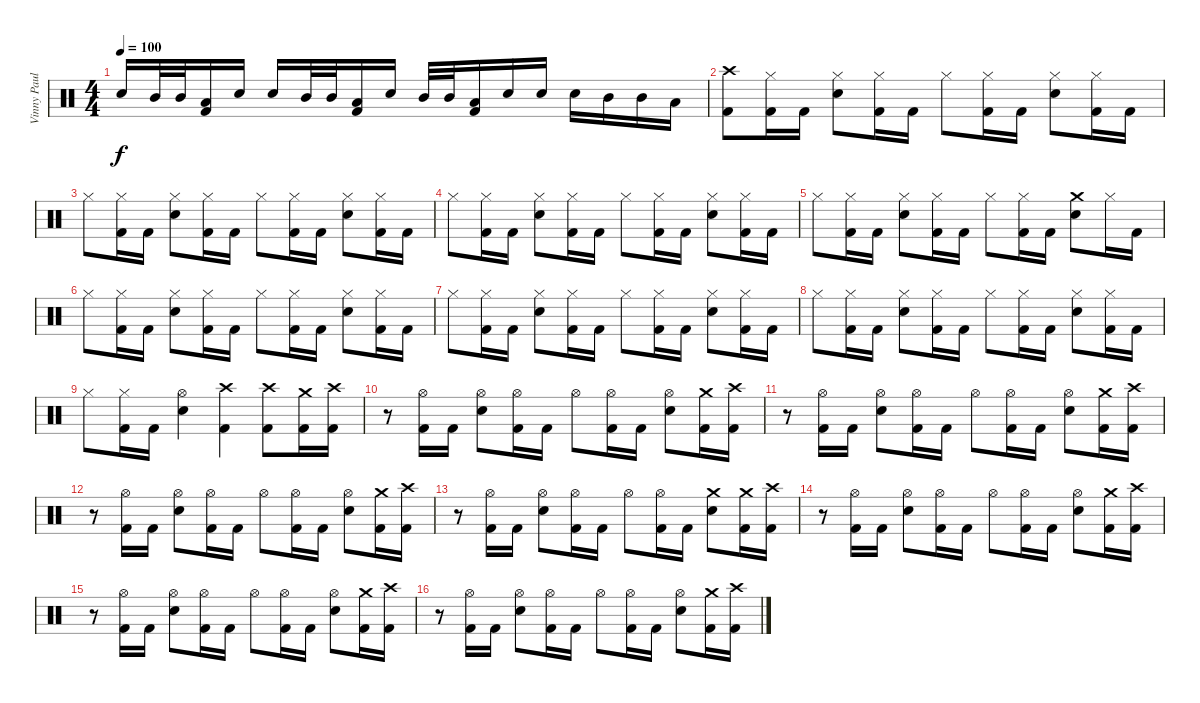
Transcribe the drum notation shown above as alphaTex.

\track ("Vinny Paul" "Vinny Paul") {instrument percussion}
\staff {score}
\articulation defaults
\ts (4 4)
\tempo 100
\clef neutral
\ks c "Snare (hit) 2".16{dy f} "Mid Tom (hit)".32 "Mid Tom (hit)".32
("Low Tom (hit)" "Kick (hit) 2").16 "Snare (hit) 2".16 "Snare (hit) 2".16 "Mid Tom (hit)".32 "Mid Tom (hit)".32 ("Low Tom (hit)" "Kick (hit) 2").16 "Snare (hit) 2".16 "Mid Tom (hit)".32 "Mid Tom (hit)".32 ("Low Tom (hit)" "Kick (hit) 2").16 "Snare (hit) 2".16 "Snare (hit) 2".16 "Snare (hit) 2".16 "Mid Tom (hit)".16 "Mid Tom (hit)".16 "Low Tom (hit)".16 |
("Crash high (hit)" "Kick (hit) 2").8 ("Hi-Hat (closed)" "Kick (hit) 2").16 "Kick (hit) 2".16 ("Hi-Hat (closed)" "Snare (hit) 2").8 ("Hi-Hat (closed)" "Kick (hit) 2").16 "Kick (hit) 2".16 "Hi-Hat (closed)".8 ("Hi-Hat (closed)" "Kick (hit) 2").16 "Kick (hit) 2".16 ("Hi-Hat (closed)" "Snare (hit) 2").8 ("Hi-Hat (closed)" "Kick (hit) 2").16 "Kick (hit) 2".16 |
"Hi-Hat (closed)".8 ("Hi-Hat (closed)" "Kick (hit) 2").16 "Kick (hit) 2".16 ("Hi-Hat (closed)" "Snare (hit) 2").8 ("Hi-Hat (closed)" "Kick (hit) 2").16 "Kick (hit) 2".16 "Hi-Hat (closed)".8 ("Hi-Hat (closed)" "Kick (hit) 2").16 "Kick (hit) 2".16 ("Hi-Hat (closed)" "Snare (hit) 2").8 ("Hi-Hat (closed)" "Kick (hit) 2").16 "Kick (hit) 2".16 |
"Hi-Hat (closed)".8 ("Hi-Hat (closed)" "Kick (hit) 2").16 "Kick (hit) 2".16 ("Hi-Hat (closed)" "Snare (hit) 2").8 ("Hi-Hat (closed)" "Kick (hit) 2").16 "Kick (hit) 2".16 "Hi-Hat (closed)".8 ("Hi-Hat (closed)" "Kick (hit) 2").16 "Kick (hit) 2".16 ("Hi-Hat (closed)" "Snare (hit) 2").8 ("Hi-Hat (closed)" "Kick (hit) 2").16 "Kick (hit) 2".16 |
"Hi-Hat (closed)".8 ("Hi-Hat (closed)" "Kick (hit) 2").16 "Kick (hit) 2".16 ("Hi-Hat (closed)" "Snare (hit) 2").8 ("Hi-Hat (closed)" "Kick (hit) 2").16 "Kick (hit) 2".16 "Hi-Hat (closed)".8 ("Hi-Hat (closed)" "Kick (hit) 2").16 "Kick (hit) 2".16 ("Crash medium (hit)" "Snare (hit) 2").8 "Hi-Hat (closed)".16 "Kick (hit) 2".16 |
"Hi-Hat (closed)".8 ("Hi-Hat (closed)" "Kick (hit) 2").16 "Kick (hit) 2".16 ("Hi-Hat (closed)" "Snare (hit) 2").8 ("Hi-Hat (closed)" "Kick (hit) 2").16 "Kick (hit) 2".16 "Hi-Hat (closed)".8 ("Hi-Hat (closed)" "Kick (hit) 2").16 "Kick (hit) 2".16 ("Hi-Hat (closed)" "Snare (hit) 2").8 ("Hi-Hat (closed)" "Kick (hit) 2").16 "Kick (hit) 2".16 |
"Hi-Hat (closed)".8 ("Hi-Hat (closed)" "Kick (hit) 2").16 "Kick (hit) 2".16 ("Hi-Hat (closed)" "Snare (hit) 2").8 ("Hi-Hat (closed)" "Kick (hit) 2").16 "Kick (hit) 2".16 "Hi-Hat (closed)".8 ("Hi-Hat (closed)" "Kick (hit) 2").16 "Kick (hit) 2".16 ("Hi-Hat (closed)" "Snare (hit) 2").8 ("Hi-Hat (closed)" "Kick (hit) 2").16 "Kick (hit) 2".16 |
"Hi-Hat (closed)".8 ("Hi-Hat (closed)" "Kick (hit) 2").16 "Kick (hit) 2".16 ("Hi-Hat (closed)" "Snare (hit) 2").8 ("Hi-Hat (closed)" "Kick (hit) 2").16 "Kick (hit) 2".16 "Hi-Hat (closed)".8 ("Hi-Hat (closed)" "Kick (hit) 2").16 "Kick (hit) 2".16 ("Hi-Hat (closed)" "Snare (hit) 2").8 ("Hi-Hat (closed)" "Kick (hit) 2").16 "Kick (hit) 2".16 |
"Hi-Hat (closed)".8 ("Hi-Hat (closed)" "Kick (hit) 2").16 "Kick (hit) 2".16 ("Hi-Hat (open)" "Snare (hit) 2").4 ("Crash high (hit)" "Kick (hit) 2").4 ("Crash high (hit)" "Kick (hit) 2").8 ("Crash medium (hit)" "Kick (hit) 2").16 ("Crash high (hit)" "Kick (hit) 2").16 |
r.8 ("Hi-Hat (open)" "Kick (hit) 2").16 "Kick (hit) 2".16 ("Hi-Hat (open)" "Snare (hit) 2").8 ("Hi-Hat (open)" "Kick (hit) 2").16 "Kick (hit) 2".16 "Hi-Hat (open)".8 ("Hi-Hat (open)" "Kick (hit) 2").16 "Kick (hit) 2".16 ("Hi-Hat (open)" "Snare (hit) 2").8 ("Crash medium (hit)" "Kick (hit) 2").16 ("Crash high (hit)" "Kick (hit) 2").16 |
r.8 ("Hi-Hat (open)" "Kick (hit) 2").16 "Kick (hit) 2".16 ("Hi-Hat (open)" "Snare (hit) 2").8 ("Hi-Hat (open)" "Kick (hit) 2").16 "Kick (hit) 2".16 "Hi-Hat (open)".8 ("Hi-Hat (open)" "Kick (hit) 2").16 "Kick (hit) 2".16 ("Hi-Hat (open)" "Snare (hit) 2").8 ("Crash medium (hit)" "Kick (hit) 2").16 ("Crash high (hit)" "Kick (hit) 2").16 |
r.8 ("Hi-Hat (open)" "Kick (hit) 2").16 "Kick (hit) 2".16 ("Hi-Hat (open)" "Snare (hit) 2").8 ("Hi-Hat (open)" "Kick (hit) 2").16 "Kick (hit) 2".16 "Hi-Hat (open)".8 ("Hi-Hat (open)" "Kick (hit) 2").16 "Kick (hit) 2".16 ("Hi-Hat (open)" "Snare (hit) 2").8 ("Crash medium (hit)" "Kick (hit) 2").16 ("Crash high (hit)" "Kick (hit) 2").16 |
r.8 ("Hi-Hat (open)" "Kick (hit) 2").16 "Kick (hit) 2".16 ("Hi-Hat (open)" "Snare (hit) 2").8 ("Hi-Hat (open)" "Kick (hit) 2").16 "Kick (hit) 2".16 "Hi-Hat (open)".8 ("Hi-Hat (open)" "Kick (hit) 2").16 "Kick (hit) 2".16 ("Crash medium (hit)" "Snare (hit) 2").8 ("Crash medium (hit)" "Kick (hit) 2").16 ("Crash high (hit)" "Kick (hit) 2").16 |
r.8 ("Hi-Hat (open)" "Kick (hit) 2").16 "Kick (hit) 2".16 ("Hi-Hat (open)" "Snare (hit) 2").8 ("Hi-Hat (open)" "Kick (hit) 2").16 "Kick (hit) 2".16 "Hi-Hat (open)".8 ("Hi-Hat (open)" "Kick (hit) 2").16 "Kick (hit) 2".16 ("Hi-Hat (open)" "Snare (hit) 2").8 ("Crash medium (hit)" "Kick (hit) 2").16 ("Crash high (hit)" "Kick (hit) 2").16 |
r.8 ("Hi-Hat (open)" "Kick (hit) 2").16 "Kick (hit) 2".16 ("Hi-Hat (open)" "Snare (hit) 2").8 ("Hi-Hat (open)" "Kick (hit) 2").16 "Kick (hit) 2".16 "Hi-Hat (open)".8 ("Hi-Hat (open)" "Kick (hit) 2").16 "Kick (hit) 2".16 ("Hi-Hat (open)" "Snare (hit) 2").8 ("Crash medium (hit)" "Kick (hit) 2").16 ("Crash high (hit)" "Kick (hit) 2").16 |
r.8 ("Hi-Hat (open)" "Kick (hit) 2").16 "Kick (hit) 2".16 ("Hi-Hat (open)" "Snare (hit) 2").8 ("Hi-Hat (open)" "Kick (hit) 2").16 "Kick (hit) 2".16 "Hi-Hat (open)".8 ("Hi-Hat (open)" "Kick (hit) 2").16 "Kick (hit) 2".16 ("Hi-Hat (open)" "Snare (hit) 2").8 ("Crash medium (hit)" "Kick (hit) 2").16 ("Crash high (hit)" "Kick (hit) 2").16
